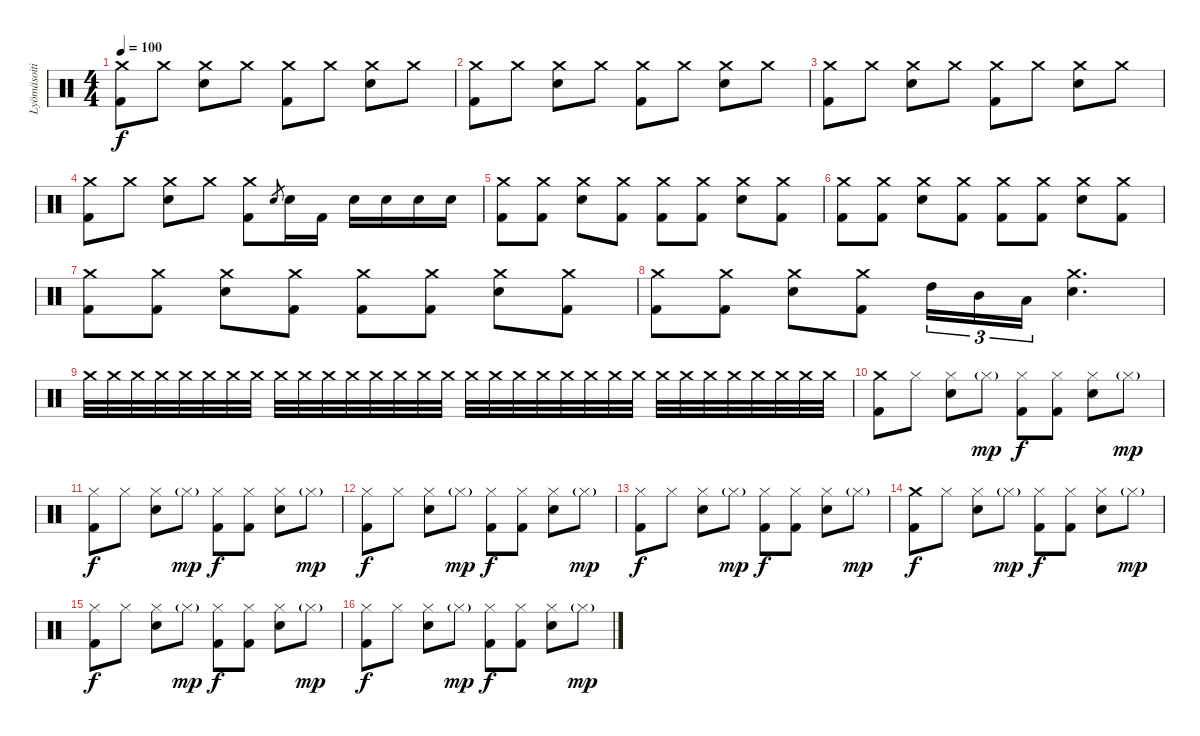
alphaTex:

\track ("Lyömäsoitin" "Lyömäsoiti") {instrument percussion}
\staff {score}
\articulation defaults
\ts (4 4)
\tempo 100
\clef neutral
\ks c
("Crash medium (hit)" "Kick (hit) 2").8{dy f} "Crash medium (hit)".8 ("Crash medium (hit)" "Electric Snare (hit)").8 "Crash medium (hit)".8 ("Crash medium (hit)" "Kick (hit) 2").8 "Crash medium (hit)".8 ("Crash medium (hit)" "Electric Snare (hit)").8 "Crash medium (hit)".8 |
("Crash medium (hit)" "Kick (hit) 2").8 "Crash medium (hit)".8 ("Crash medium (hit)" "Electric Snare (hit)").8 "Crash medium (hit)".8 ("Crash medium (hit)" "Kick (hit) 2").8 "Crash medium (hit)".8 ("Crash medium (hit)" "Electric Snare (hit)").8 "Crash medium (hit)".8 |
("Crash medium (hit)" "Kick (hit) 2").8 "Crash medium (hit)".8 ("Crash medium (hit)" "Electric Snare (hit)").8 "Crash medium (hit)".8 ("Crash medium (hit)" "Kick (hit) 2").8 "Crash medium (hit)".8 ("Crash medium (hit)" "Electric Snare (hit)").8 "Crash medium (hit)".8 |
("Crash medium (hit)" "Kick (hit) 2").8 "Crash medium (hit)".8 ("Crash medium (hit)" "Electric Snare (hit)").8 "Crash medium (hit)".8 ("Crash medium (hit)" "Kick (hit) 2").8 "Electric Snare (hit)".8{gr} "Electric Snare (hit)".16 "Kick (hit) 2".16 "Electric Snare (hit)".16 "Electric Snare (hit)".16 "Electric Snare (hit)".16 "Electric Snare (hit)".16 |
("Crash medium (hit)" "Kick (hit) 2").8 ("Crash medium (hit)" "Kick (hit) 2").8 ("Crash medium (hit)" "Electric Snare (hit)").8 ("Crash medium (hit)" "Kick (hit) 2").8 ("Crash medium (hit)" "Kick (hit) 2").8 ("Crash medium (hit)" "Kick (hit) 2").8 ("Crash medium (hit)" "Electric Snare (hit)").8 ("Crash medium (hit)" "Kick (hit) 2").8 |
("Crash medium (hit)" "Kick (hit) 2").8 ("Crash medium (hit)" "Kick (hit) 2").8 ("Crash medium (hit)" "Electric Snare (hit)").8 ("Crash medium (hit)" "Kick (hit) 2").8 ("Crash medium (hit)" "Kick (hit) 2").8 ("Crash medium (hit)" "Kick (hit) 2").8 ("Crash medium (hit)" "Electric Snare (hit)").8 ("Crash medium (hit)" "Kick (hit) 2").8 |
("Crash medium (hit)" "Kick (hit) 2").8 ("Crash medium (hit)" "Kick (hit) 2").8 ("Crash medium (hit)" "Electric Snare (hit)").8 ("Crash medium (hit)" "Kick (hit) 2").8 ("Crash medium (hit)" "Kick (hit) 2").8 ("Crash medium (hit)" "Kick (hit) 2").8 ("Crash medium (hit)" "Electric Snare (hit)").8 ("Crash medium (hit)" "Kick (hit) 2").8 |
("Crash medium (hit)" "Kick (hit) 2").8 ("Crash medium (hit)" "Kick (hit) 2").8 ("Crash medium (hit)" "Electric Snare (hit)").8 ("Crash medium (hit)" "Kick (hit) 2").8 "High Tom (hit)".16{tu (3 2)} "Mid Tom (hit)".16{tu (3 2)} "Low Tom (hit)".16{tu (3 2)} ("Crash medium (hit)" "Electric Snare (hit)").4{d} |
"Crash medium (hit)".32{volume 0} "Crash medium (hit)".32 "Crash medium (hit)".32{volume 1} "Crash medium (hit)".32 "Crash medium (hit)".32{volume 2} "Crash medium (hit)".32 "Crash medium (hit)".32{volume 3} "Crash medium (hit)".32 "Crash medium (hit)".32{volume 4} "Crash medium (hit)".32 "Crash medium (hit)".32{volume 6} "Crash medium (hit)".32 "Crash medium (hit)".32{volume 7} "Crash medium (hit)".32 "Crash medium (hit)".32{volume 8} "Crash medium (hit)".32 "Crash medium (hit)".32{volume 9} "Crash medium (hit)".32 "Crash medium (hit)".32{volume 10} "Crash medium (hit)".32 "Crash medium (hit)".32{volume 11} "Crash medium (hit)".32 "Crash medium (hit)".32{volume 12} "Crash medium (hit)".32 "Crash medium (hit)".32{volume 13} "Crash medium (hit)".32 "Crash medium (hit)".32{volume 14} "Crash medium (hit)".32 "Crash medium (hit)".32{volume 15} "Crash medium (hit)".32 "Crash medium (hit)".32{volume 16} "Crash medium (hit)".32 |
("Crash medium (hit)" "Kick (hit) 2").8 "Hi-Hat (closed)".8 ("Hi-Hat (closed)" "Electric Snare (hit)").8 "Hi-Hat (closed)"{g}.8{dy mp} ("Hi-Hat (closed)" "Kick (hit) 2").8{dy f} ("Hi-Hat (closed)" "Kick (hit) 2").8 ("Hi-Hat (closed)" "Electric Snare (hit)").8 "Hi-Hat (closed)"{g}.8{dy mp} |
("Hi-Hat (closed)" "Kick (hit) 2").8{dy f} "Hi-Hat (closed)".8 ("Hi-Hat (closed)" "Electric Snare (hit)").8 "Hi-Hat (closed)"{g}.8{dy mp} ("Hi-Hat (closed)" "Kick (hit) 2").8{dy f} ("Hi-Hat (closed)" "Kick (hit) 2").8 ("Hi-Hat (closed)" "Electric Snare (hit)").8 "Hi-Hat (closed)"{g}.8{dy mp} |
("Hi-Hat (closed)" "Kick (hit) 2").8{dy f} "Hi-Hat (closed)".8 ("Hi-Hat (closed)" "Electric Snare (hit)").8 "Hi-Hat (closed)"{g}.8{dy mp} ("Hi-Hat (closed)" "Kick (hit) 2").8{dy f} ("Hi-Hat (closed)" "Kick (hit) 2").8 ("Hi-Hat (closed)" "Electric Snare (hit)").8 "Hi-Hat (closed)"{g}.8{dy mp} |
("Hi-Hat (closed)" "Kick (hit) 2").8{dy f} "Hi-Hat (closed)".8 ("Hi-Hat (closed)" "Electric Snare (hit)").8 "Hi-Hat (closed)"{g}.8{dy mp} ("Hi-Hat (closed)" "Kick (hit) 2").8{dy f} ("Hi-Hat (closed)" "Kick (hit) 2").8 ("Hi-Hat (closed)" "Electric Snare (hit)").8 "Hi-Hat (closed)"{g}.8{dy mp} |
("Crash medium (hit)" "Kick (hit) 2").8{dy f} "Hi-Hat (closed)".8 ("Hi-Hat (closed)" "Electric Snare (hit)").8 "Hi-Hat (closed)"{g}.8{dy mp} ("Hi-Hat (closed)" "Kick (hit) 2").8{dy f} ("Hi-Hat (closed)" "Kick (hit) 2").8 ("Hi-Hat (closed)" "Electric Snare (hit)").8 "Hi-Hat (closed)"{g}.8{dy mp} |
("Hi-Hat (closed)" "Kick (hit) 2").8{dy f} "Hi-Hat (closed)".8 ("Hi-Hat (closed)" "Electric Snare (hit)").8 "Hi-Hat (closed)"{g}.8{dy mp} ("Hi-Hat (closed)" "Kick (hit) 2").8{dy f} ("Hi-Hat (closed)" "Kick (hit) 2").8 ("Hi-Hat (closed)" "Electric Snare (hit)").8 "Hi-Hat (closed)"{g}.8{dy mp} |
("Hi-Hat (closed)" "Kick (hit) 2").8{dy f} "Hi-Hat (closed)".8 ("Hi-Hat (closed)" "Electric Snare (hit)").8 "Hi-Hat (closed)"{g}.8{dy mp} ("Hi-Hat (closed)" "Kick (hit) 2").8{dy f} ("Hi-Hat (closed)" "Kick (hit) 2").8 ("Hi-Hat (closed)" "Electric Snare (hit)").8 "Hi-Hat (closed)"{g}.8{dy mp}
